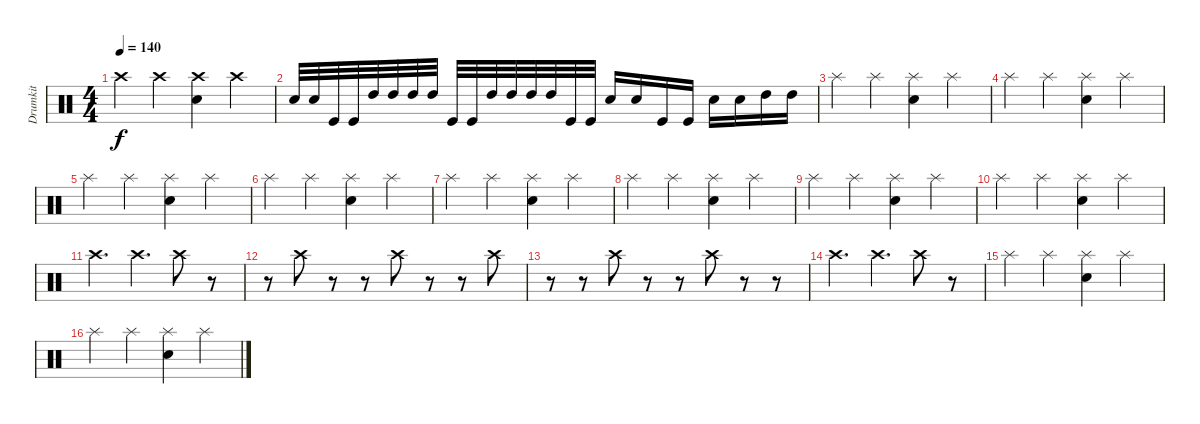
\track ("Drumkit" "Drumkit") {instrument percussion}
\staff {score}
\articulation defaults
\ts (4 4)
\tempo 140
\clef neutral
\ks c "Crash high (hit)".4{dy f} "Crash high (hit)".4
("Crash high (hit)" "Snare (hit) 2").4 "Crash high (hit)".4 |
"Snare (hit) 2".32 "Snare (hit) 2".32 "Kick (hit)".32 "Kick (hit)".32 "High Tom (hit)".32 "High Tom (hit)".32 "High Tom (hit)".32 "High Tom (hit)".32 "Kick (hit)".32 "Kick (hit)".32 "High Tom (hit)".32 "High Tom (hit)".32 "High Tom (hit)".32 "High Tom (hit)".32 "Kick (hit)".32 "Kick (hit)".32 "Snare (hit) 2".16 "Snare (hit) 2".16 "Kick (hit)".16 "Kick (hit)".16 "Snare (hit) 2".16 "Snare (hit) 2".16 "High Tom (hit)".16 "High Tom (hit)".16 |
"Splash (hit)".4 "Splash (hit)".4 ("Splash (hit)" "Snare (hit) 2").4 "Splash (hit)".4 |
"Splash (hit)".4 "Splash (hit)".4 ("Splash (hit)" "Snare (hit) 2").4 "Splash (hit)".4 |
"Splash (hit)".4 "Splash (hit)".4 ("Splash (hit)" "Snare (hit) 2").4 "Splash (hit)".4 |
"Splash (hit)".4 "Splash (hit)".4 ("Splash (hit)" "Snare (hit) 2").4 "Splash (hit)".4 |
"Splash (hit)".4 "Splash (hit)".4 ("Splash (hit)" "Snare (hit) 2").4 "Splash (hit)".4 |
"Splash (hit)".4 "Splash (hit)".4 ("Splash (hit)" "Snare (hit) 2").4 "Splash (hit)".4 |
"Splash (hit)".4 "Splash (hit)".4 ("Splash (hit)" "Snare (hit) 2").4 "Splash (hit)".4 |
"Splash (hit)".4 "Splash (hit)".4 ("Splash (hit)" "Snare (hit) 2").4 "Splash (hit)".4 |
"Crash high (hit)".4{d} "Crash high (hit)".4{d} "Crash high (hit)".8 r.8 |
r.8 "Crash high (hit)".8 r.8 r.8 "Crash high (hit)".8 r.8 r.8 "Crash high (hit)".8 |
r.8 r.8 "Crash high (hit)".8 r.8 r.8 "Crash high (hit)".8 r.8 r.8 |
"Crash high (hit)".4{d} "Crash high (hit)".4{d} "Crash high (hit)".8 r.8 |
"Splash (hit)".4 "Splash (hit)".4 ("Splash (hit)" "Snare (hit) 2").4 "Splash (hit)".4 |
"Splash (hit)".4 "Splash (hit)".4 ("Splash (hit)" "Snare (hit) 2").4 "Splash (hit)".4
